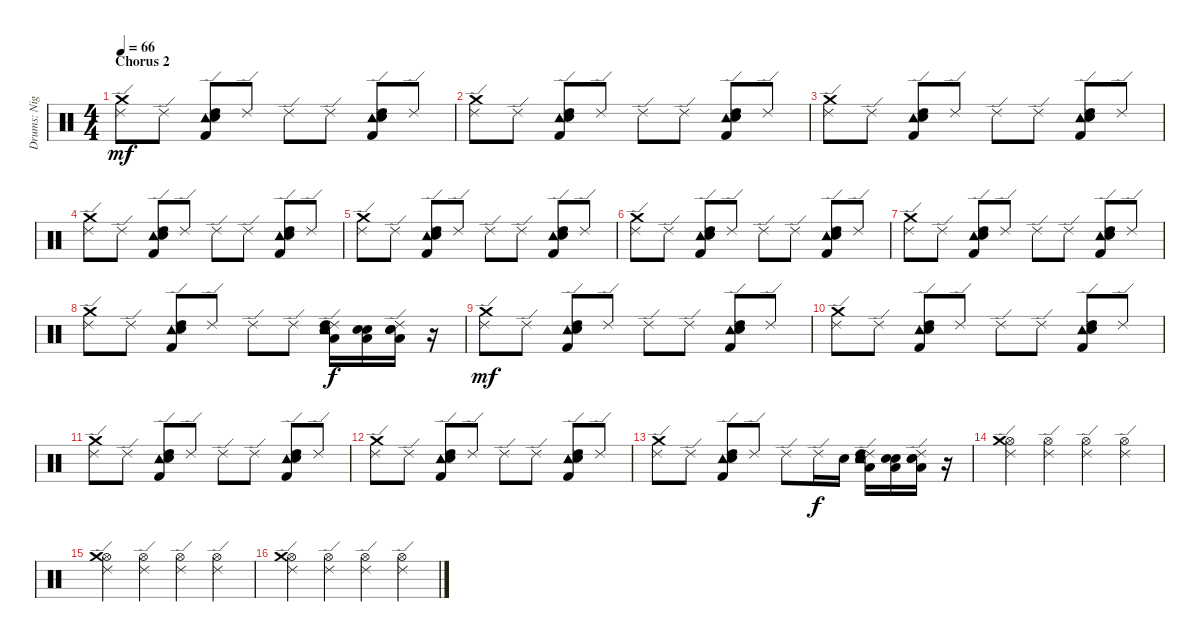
\track ("Drums: Nigel Olsson" "Drums: Nig") {instrument percussion}
\staff {score}
\articulation defaults
\ts (4 4)
\section ("" "Chorus 2")
\tempo 66
\clef neutral
\ks c
("Ride (edge) 2" "Crash medium (hit)").8{dy mf} "Ride (edge) 2".8 ("Ride (edge) 2" "Tambourine (hit)" "Snare (hit) 2" "High Tom (hit)" "Kick (hit) 2").8 "Ride (edge) 2".8 "Ride (edge) 2".8 "Ride (edge) 2".8 ("Ride (edge) 2" "Tambourine (hit)" "Snare (hit) 2" "High Tom (hit)" "Kick (hit) 2").8 "Ride (edge) 2".8 |
("Ride (edge) 2" "Crash medium (hit)").8 "Ride (edge) 2".8 ("Ride (edge) 2" "Tambourine (hit)" "Snare (hit) 2" "High Tom (hit)" "Kick (hit) 2").8 "Ride (edge) 2".8 "Ride (edge) 2".8 "Ride (edge) 2".8 ("Ride (edge) 2" "Tambourine (hit)" "Snare (hit) 2" "High Tom (hit)" "Kick (hit) 2").8 "Ride (edge) 2".8 |
("Ride (edge) 2" "Crash medium (hit)").8 "Ride (edge) 2".8 ("Ride (edge) 2" "Tambourine (hit)" "Snare (hit) 2" "High Tom (hit)" "Kick (hit) 2").8 "Ride (edge) 2".8 "Ride (edge) 2".8 "Ride (edge) 2".8 ("Ride (edge) 2" "Tambourine (hit)" "Snare (hit) 2" "High Tom (hit)" "Kick (hit) 2").8 "Ride (edge) 2".8 |
("Ride (edge) 2" "Crash medium (hit)").8 "Ride (edge) 2".8 ("Ride (edge) 2" "Tambourine (hit)" "Snare (hit) 2" "High Tom (hit)" "Kick (hit) 2").8 "Ride (edge) 2".8 "Ride (edge) 2".8 "Ride (edge) 2".8 ("Ride (edge) 2" "Tambourine (hit)" "Snare (hit) 2" "High Tom (hit)" "Kick (hit) 2").8 "Ride (edge) 2".8 |
("Ride (edge) 2" "Crash medium (hit)").8 "Ride (edge) 2".8 ("Ride (edge) 2" "Tambourine (hit)" "Snare (hit) 2" "High Tom (hit)" "Kick (hit) 2").8 "Ride (edge) 2".8 "Ride (edge) 2".8 "Ride (edge) 2".8 ("Ride (edge) 2" "Tambourine (hit)" "Snare (hit) 2" "High Tom (hit)" "Kick (hit) 2").8 "Ride (edge) 2".8 |
("Ride (edge) 2" "Crash medium (hit)").8 "Ride (edge) 2".8 ("Ride (edge) 2" "Tambourine (hit)" "Snare (hit) 2" "High Tom (hit)" "Kick (hit) 2").8 "Ride (edge) 2".8 "Ride (edge) 2".8 "Ride (edge) 2".8 ("Ride (edge) 2" "Tambourine (hit)" "Snare (hit) 2" "High Tom (hit)" "Kick (hit) 2").8 "Ride (edge) 2".8 |
("Ride (edge) 2" "Crash medium (hit)").8 "Ride (edge) 2".8 ("Ride (edge) 2" "Tambourine (hit)" "Snare (hit) 2" "High Tom (hit)" "Kick (hit) 2").8 "Ride (edge) 2".8 "Ride (edge) 2".8 "Ride (edge) 2".8 ("Ride (edge) 2" "Tambourine (hit)" "Snare (hit) 2" "High Tom (hit)" "Kick (hit) 2").8 "Ride (edge) 2".8 |
("Ride (edge) 2" "Crash medium (hit)").8 "Ride (edge) 2".8 ("Ride (edge) 2" "Tambourine (hit)" "Snare (hit) 2" "High Tom (hit)" "Kick (hit) 2").8 "Ride (edge) 2".8 "Ride (edge) 2".8 "Ride (edge) 2".8 ("Tambourine (hit)" "Snare (hit) 2" "Electric Snare (hit)" "Low Floor Tom (hit)" "Ride (edge) 2" "High Tom (hit)").16{dy f} ("Electric Snare (hit)" "Snare (hit) 2" "Low Floor Tom (hit)").16 ("Electric Snare (hit)" "Snare (hit) 2" "Low Floor Tom (hit)" "Ride (edge) 2").16 r.16 |
("Ride (edge) 2" "Crash medium (hit)").8{dy mf} "Ride (edge) 2".8 ("Ride (edge) 2" "Tambourine (hit)" "Snare (hit) 2" "High Tom (hit)" "Kick (hit) 2").8 "Ride (edge) 2".8 "Ride (edge) 2".8 "Ride (edge) 2".8 ("Ride (edge) 2" "Tambourine (hit)" "Snare (hit) 2" "High Tom (hit)" "Kick (hit) 2").8 "Ride (edge) 2".8 |
("Ride (edge) 2" "Crash medium (hit)").8 "Ride (edge) 2".8 ("Ride (edge) 2" "Tambourine (hit)" "Snare (hit) 2" "High Tom (hit)" "Kick (hit) 2").8 "Ride (edge) 2".8 "Ride (edge) 2".8 "Ride (edge) 2".8 ("Ride (edge) 2" "Tambourine (hit)" "Snare (hit) 2" "High Tom (hit)" "Kick (hit) 2").8 "Ride (edge) 2".8 |
("Ride (edge) 2" "Crash medium (hit)").8 "Ride (edge) 2".8 ("Ride (edge) 2" "Tambourine (hit)" "Snare (hit) 2" "High Tom (hit)" "Kick (hit) 2").8 "Ride (edge) 2".8 "Ride (edge) 2".8 "Ride (edge) 2".8 ("Ride (edge) 2" "Tambourine (hit)" "Snare (hit) 2" "High Tom (hit)" "Kick (hit) 2").8 "Ride (edge) 2".8 |
("Ride (edge) 2" "Crash medium (hit)").8 "Ride (edge) 2".8 ("Ride (edge) 2" "Tambourine (hit)" "Snare (hit) 2" "High Tom (hit)" "Kick (hit) 2").8 "Ride (edge) 2".8 "Ride (edge) 2".8 "Ride (edge) 2".8 ("Ride (edge) 2" "Tambourine (hit)" "Snare (hit) 2" "High Tom (hit)" "Kick (hit) 2").8 "Ride (edge) 2".8 |
("Ride (edge) 2" "Crash medium (hit)").8 "Ride (edge) 2".8 ("Ride (edge) 2" "Tambourine (hit)" "Snare (hit) 2" "High Tom (hit)" "Kick (hit) 2").8 "Ride (edge) 2".8 "Ride (edge) 2".8 "Ride (edge) 2".16{dy f} "Electric Snare (hit)".16 ("Tambourine (hit)" "Snare (hit) 2" "Electric Snare (hit)" "Low Floor Tom (hit)" "Ride (edge) 2" "High Tom (hit)").16 ("Electric Snare (hit)" "Snare (hit) 2" "Low Floor Tom (hit)").16 ("Electric Snare (hit)" "Snare (hit) 2" "Low Floor Tom (hit)" "Ride (edge) 2").16 r.16 |
("Hi-Hat (open)" "Ride (edge) 2" "Crash medium (hit)").4 ("Hi-Hat (open)" "Ride (edge) 2").4 ("Hi-Hat (open)" "Ride (edge) 2").4 ("Hi-Hat (open)" "Ride (edge) 2").4 |
("Hi-Hat (open)" "Ride (edge) 2" "Crash medium (hit)").4 ("Hi-Hat (open)" "Ride (edge) 2").4 ("Hi-Hat (open)" "Ride (edge) 2").4 ("Hi-Hat (open)" "Ride (edge) 2").4 |
("Hi-Hat (open)" "Ride (edge) 2" "Crash medium (hit)").4 ("Hi-Hat (open)" "Ride (edge) 2").4 ("Hi-Hat (open)" "Ride (edge) 2").4 ("Hi-Hat (open)" "Ride (edge) 2").4
